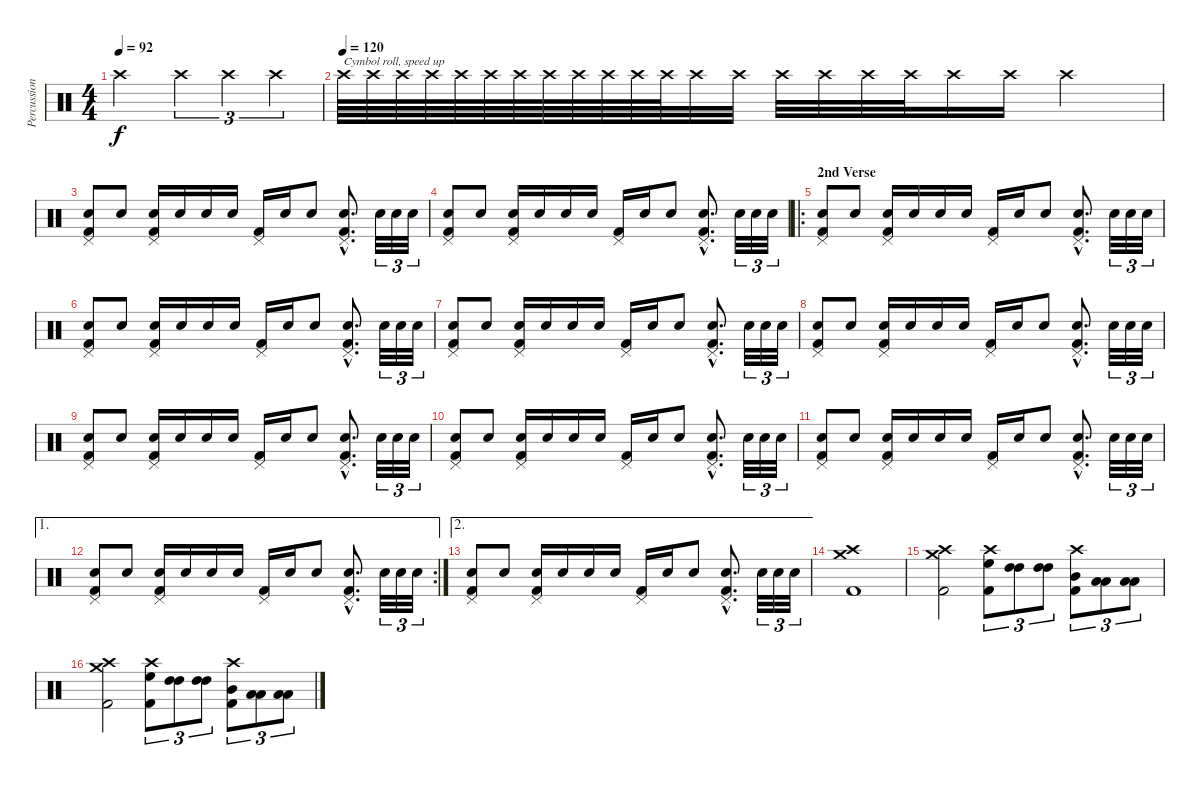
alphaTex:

\track ("Percussion" "Percussion") {instrument percussion}
\staff {score}
\articulation defaults
\ts (4 4)
\tempo 92
\clef neutral
\ks c "Crash high (hit)".2{dy f} "Crash high (hit)".4{tu (3 2)} "Crash high (hit)".4{tu (3 2)} "Crash high (hit)".4{tu (3 2) volume 6}
|
\tempo (120)
"Crash high (hit)".64{txt "Cymbol roll, speed up" volume 13} "Crash high (hit)".64 "Crash high (hit)".64 "Crash high (hit)".64 "Crash high (hit)".64 "Crash high (hit)".64 "Crash high (hit)".64 "Crash high (hit)".64 "Crash high (hit)".64 "Crash high (hit)".64 "Crash high (hit)".64 "Crash high (hit)".64 "Crash high (hit)".32 "Crash high (hit)".32 "Crash high (hit)".32 "Crash high (hit)".32 "Crash high (hit)".32 "Crash high (hit)".32 "Crash high (hit)".16 "Crash high (hit)".16 "Crash high (hit)".2 |
("Kick (hit) 2" "Pedal Hi-Hat (hit)" "Snare (hit) 2").8 "Snare (hit) 2".8 ("Kick (hit) 2" "Pedal Hi-Hat (hit)" "Electric Snare (hit)").16 "Snare (hit) 2".16 "Snare (hit) 2".16 "Electric Snare (hit)".16 ("Kick (hit) 2" "Pedal Hi-Hat (hit)").16 "Electric Snare (hit)".16 "Snare (hit) 2".8 ("Kick (hit) 2"{hac} "Pedal Hi-Hat (hit)"{hac} "Electric Snare (hit)"{hac}).8{d} "Snare (hit) 2".32{tu (3 2)} "Snare (hit) 2".32{tu (3 2)} "Snare (hit) 2".32{tu (3 2)} |
("Kick (hit) 2" "Pedal Hi-Hat (hit)" "Snare (hit) 2").8 "Snare (hit) 2".8 ("Kick (hit) 2" "Pedal Hi-Hat (hit)" "Electric Snare (hit)").16 "Snare (hit) 2".16 "Snare (hit) 2".16 "Electric Snare (hit)".16 ("Kick (hit) 2" "Pedal Hi-Hat (hit)").16 "Electric Snare (hit)".16 "Snare (hit) 2".8 ("Kick (hit) 2"{hac} "Pedal Hi-Hat (hit)"{hac} "Electric Snare (hit)"{hac}).8{d} "Snare (hit) 2".32{tu (3 2)} "Snare (hit) 2".32{tu (3 2)} "Snare (hit) 2".32{tu (3 2)} |
\ro
\section ("" "2nd Verse")
("Kick (hit) 2" "Pedal Hi-Hat (hit)" "Snare (hit) 2").8 "Snare (hit) 2".8 ("Kick (hit) 2" "Pedal Hi-Hat (hit)" "Electric Snare (hit)").16 "Snare (hit) 2".16 "Snare (hit) 2".16 "Electric Snare (hit)".16 ("Kick (hit) 2" "Pedal Hi-Hat (hit)").16 "Electric Snare (hit)".16 "Snare (hit) 2".8 ("Kick (hit) 2"{hac} "Pedal Hi-Hat (hit)"{hac} "Electric Snare (hit)"{hac}).8{d} "Snare (hit) 2".32{tu (3 2)} "Snare (hit) 2".32{tu (3 2)} "Snare (hit) 2".32{tu (3 2)} |
("Kick (hit) 2" "Pedal Hi-Hat (hit)" "Snare (hit) 2").8 "Snare (hit) 2".8 ("Kick (hit) 2" "Pedal Hi-Hat (hit)" "Electric Snare (hit)").16 "Snare (hit) 2".16 "Snare (hit) 2".16 "Electric Snare (hit)".16 ("Kick (hit) 2" "Pedal Hi-Hat (hit)").16 "Electric Snare (hit)".16 "Snare (hit) 2".8 ("Kick (hit) 2"{hac} "Pedal Hi-Hat (hit)"{hac} "Electric Snare (hit)"{hac}).8{d} "Snare (hit) 2".32{tu (3 2)} "Snare (hit) 2".32{tu (3 2)} "Snare (hit) 2".32{tu (3 2)} |
("Kick (hit) 2" "Pedal Hi-Hat (hit)" "Snare (hit) 2").8 "Snare (hit) 2".8 ("Kick (hit) 2" "Pedal Hi-Hat (hit)" "Electric Snare (hit)").16 "Snare (hit) 2".16 "Snare (hit) 2".16 "Electric Snare (hit)".16 ("Kick (hit) 2" "Pedal Hi-Hat (hit)").16 "Electric Snare (hit)".16 "Snare (hit) 2".8 ("Kick (hit) 2"{hac} "Pedal Hi-Hat (hit)"{hac} "Electric Snare (hit)"{hac}).8{d} "Snare (hit) 2".32{tu (3 2)} "Snare (hit) 2".32{tu (3 2)} "Snare (hit) 2".32{tu (3 2)} |
("Kick (hit) 2" "Pedal Hi-Hat (hit)" "Snare (hit) 2").8 "Snare (hit) 2".8 ("Kick (hit) 2" "Pedal Hi-Hat (hit)" "Electric Snare (hit)").16 "Snare (hit) 2".16 "Snare (hit) 2".16 "Electric Snare (hit)".16 ("Kick (hit) 2" "Pedal Hi-Hat (hit)").16 "Electric Snare (hit)".16 "Snare (hit) 2".8 ("Kick (hit) 2"{hac} "Pedal Hi-Hat (hit)"{hac} "Electric Snare (hit)"{hac}).8{d} "Snare (hit) 2".32{tu (3 2)} "Snare (hit) 2".32{tu (3 2)} "Snare (hit) 2".32{tu (3 2)} |
("Kick (hit) 2" "Pedal Hi-Hat (hit)" "Snare (hit) 2").8 "Snare (hit) 2".8 ("Kick (hit) 2" "Pedal Hi-Hat (hit)" "Electric Snare (hit)").16 "Snare (hit) 2".16 "Snare (hit) 2".16 "Electric Snare (hit)".16 ("Kick (hit) 2" "Pedal Hi-Hat (hit)").16 "Electric Snare (hit)".16 "Snare (hit) 2".8 ("Kick (hit) 2"{hac} "Pedal Hi-Hat (hit)"{hac} "Electric Snare (hit)"{hac}).8{d} "Snare (hit) 2".32{tu (3 2)} "Snare (hit) 2".32{tu (3 2)} "Snare (hit) 2".32{tu (3 2)} |
("Kick (hit) 2" "Pedal Hi-Hat (hit)" "Snare (hit) 2").8 "Snare (hit) 2".8 ("Kick (hit) 2" "Pedal Hi-Hat (hit)" "Electric Snare (hit)").16 "Snare (hit) 2".16 "Snare (hit) 2".16 "Electric Snare (hit)".16 ("Kick (hit) 2" "Pedal Hi-Hat (hit)").16 "Electric Snare (hit)".16 "Snare (hit) 2".8 ("Kick (hit) 2"{hac} "Pedal Hi-Hat (hit)"{hac} "Electric Snare (hit)"{hac}).8{d} "Snare (hit) 2".32{tu (3 2)} "Snare (hit) 2".32{tu (3 2)} "Snare (hit) 2".32{tu (3 2)} |
("Kick (hit) 2" "Pedal Hi-Hat (hit)" "Snare (hit) 2").8 "Snare (hit) 2".8 ("Kick (hit) 2" "Pedal Hi-Hat (hit)" "Electric Snare (hit)").16 "Snare (hit) 2".16 "Snare (hit) 2".16 "Electric Snare (hit)".16 ("Kick (hit) 2" "Pedal Hi-Hat (hit)").16 "Electric Snare (hit)".16 "Snare (hit) 2".8 ("Kick (hit) 2"{hac} "Pedal Hi-Hat (hit)"{hac} "Electric Snare (hit)"{hac}).8{d} "Snare (hit) 2".32{tu (3 2)} "Snare (hit) 2".32{tu (3 2)} "Snare (hit) 2".32{tu (3 2)} |
\ae 1
\rc 2
("Kick (hit) 2" "Pedal Hi-Hat (hit)" "Snare (hit) 2").8 "Snare (hit) 2".8 ("Kick (hit) 2" "Pedal Hi-Hat (hit)" "Electric Snare (hit)").16 "Snare (hit) 2".16 "Snare (hit) 2".16 "Electric Snare (hit)".16 ("Kick (hit) 2" "Pedal Hi-Hat (hit)").16 "Electric Snare (hit)".16 "Snare (hit) 2".8 ("Kick (hit) 2"{hac} "Pedal Hi-Hat (hit)"{hac} "Electric Snare (hit)"{hac}).8{d} "Snare (hit) 2".32{tu (3 2)} "Snare (hit) 2".32{tu (3 2)} "Snare (hit) 2".32{tu (3 2)} |
\ae 2
("Kick (hit) 2" "Pedal Hi-Hat (hit)" "Snare (hit) 2").8 "Snare (hit) 2".8 ("Kick (hit) 2" "Pedal Hi-Hat (hit)" "Electric Snare (hit)").16 "Snare (hit) 2".16 "Snare (hit) 2".16 "Electric Snare (hit)".16 ("Kick (hit) 2" "Pedal Hi-Hat (hit)").16 "Electric Snare (hit)".16 "Snare (hit) 2".8 ("Kick (hit) 2"{hac} "Pedal Hi-Hat (hit)"{hac} "Electric Snare (hit)"{hac}).8{d} "Snare (hit) 2".32{tu (3 2)} "Snare (hit) 2".32{tu (3 2)} "Snare (hit) 2".32{tu (3 2)} |
("Crash medium (hit)" "Crash high (hit)" "Kick (hit) 2").1 |
("Crash medium (hit)" "Crash high (hit)" "Kick (hit) 2").2 ("High Floor Tom (hit)" "Crash high (hit)" "Kick (hit) 2").8{tu (3 2)} ("High Tom (hit)" "High Tom (hit)").8{tu (3 2)} ("High Tom (hit)" "High Tom (hit)").8{tu (3 2)} ("Mid Tom (hit)" "Crash high (hit)" "Kick (hit) 2").8{tu (3 2)} ("Low Tom (hit)" "Low Tom (hit)").8{tu (3 2)} ("Low Tom (hit)" "Low Tom (hit)").8{tu (3 2)} |
("Crash medium (hit)" "Crash high (hit)" "Kick (hit) 2").2 ("High Floor Tom (hit)" "Crash high (hit)" "Kick (hit) 2").8{tu (3 2)} ("High Tom (hit)" "High Tom (hit)").8{tu (3 2)} ("High Tom (hit)" "High Tom (hit)").8{tu (3 2)} ("Mid Tom (hit)" "Crash high (hit)" "Kick (hit) 2").8{tu (3 2)} ("Low Tom (hit)" "Low Tom (hit)").8{tu (3 2)} ("Low Tom (hit)" "Low Tom (hit)").8{tu (3 2)}
